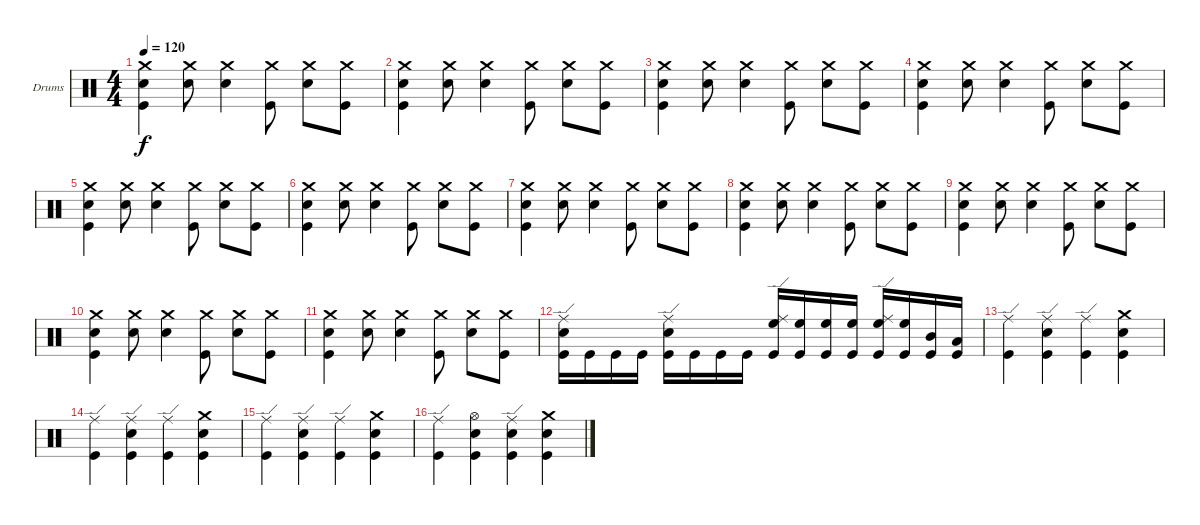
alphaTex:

\bracketExtendMode groupsimilarinstruments
\firstSystemTrackNameOrientation horizontal
\otherSystemsTrackNameOrientation horizontal
\track ("Drumkit" "Drums") {instrument percussion}
\staff {score}
\articulation defaults
\ts (4 4)
\tempo 120
\clef neutral
\ks c
("Crash medium (hit)" "Snare (hit) 2" "Kick (hit)").4{dy f} ("Crash medium (hit)" "Snare (hit) 2").8 ("Crash medium (hit)" "Snare (hit) 2").4 ("Crash medium (hit)" "Kick (hit)").8 ("Crash medium (hit)" "Snare (hit) 2").8 ("Crash medium (hit)" "Kick (hit)").8 |
("Crash medium (hit)" "Snare (hit) 2" "Kick (hit)").4 ("Crash medium (hit)" "Snare (hit) 2").8 ("Crash medium (hit)" "Snare (hit) 2").4 ("Crash medium (hit)" "Kick (hit)").8 ("Crash medium (hit)" "Snare (hit) 2").8 ("Crash medium (hit)" "Kick (hit)").8 |
("Crash medium (hit)" "Snare (hit) 2" "Kick (hit)").4 ("Crash medium (hit)" "Snare (hit) 2").8 ("Crash medium (hit)" "Snare (hit) 2").4 ("Crash medium (hit)" "Kick (hit)").8 ("Crash medium (hit)" "Snare (hit) 2").8 ("Crash medium (hit)" "Kick (hit)").8 |
("Crash medium (hit)" "Snare (hit) 2" "Kick (hit)").4 ("Crash medium (hit)" "Snare (hit) 2").8 ("Crash medium (hit)" "Snare (hit) 2").4 ("Crash medium (hit)" "Kick (hit)").8 ("Crash medium (hit)" "Snare (hit) 2").8 ("Crash medium (hit)" "Kick (hit)").8 |
("Crash medium (hit)" "Snare (hit) 2" "Kick (hit)").4 ("Crash medium (hit)" "Snare (hit) 2").8 ("Crash medium (hit)" "Snare (hit) 2").4 ("Crash medium (hit)" "Kick (hit)").8 ("Crash medium (hit)" "Snare (hit) 2").8 ("Crash medium (hit)" "Kick (hit)").8 |
("Crash medium (hit)" "Snare (hit) 2" "Kick (hit)").4 ("Crash medium (hit)" "Snare (hit) 2").8 ("Crash medium (hit)" "Snare (hit) 2").4 ("Crash medium (hit)" "Kick (hit)").8 ("Crash medium (hit)" "Snare (hit) 2").8 ("Crash medium (hit)" "Kick (hit)").8 |
("Crash medium (hit)" "Snare (hit) 2" "Kick (hit)").4 ("Crash medium (hit)" "Snare (hit) 2").8 ("Crash medium (hit)" "Snare (hit) 2").4 ("Crash medium (hit)" "Kick (hit)").8 ("Crash medium (hit)" "Snare (hit) 2").8 ("Crash medium (hit)" "Kick (hit)").8 |
("Crash medium (hit)" "Snare (hit) 2" "Kick (hit)").4 ("Crash medium (hit)" "Snare (hit) 2").8 ("Crash medium (hit)" "Snare (hit) 2").4 ("Crash medium (hit)" "Kick (hit)").8 ("Crash medium (hit)" "Snare (hit) 2").8 ("Crash medium (hit)" "Kick (hit)").8 |
("Crash medium (hit)" "Snare (hit) 2" "Kick (hit)").4 ("Crash medium (hit)" "Snare (hit) 2").8 ("Crash medium (hit)" "Snare (hit) 2").4 ("Crash medium (hit)" "Kick (hit)").8 ("Crash medium (hit)" "Snare (hit) 2").8 ("Crash medium (hit)" "Kick (hit)").8 |
("Crash medium (hit)" "Snare (hit) 2" "Kick (hit)").4 ("Crash medium (hit)" "Snare (hit) 2").8 ("Crash medium (hit)" "Snare (hit) 2").4 ("Crash medium (hit)" "Kick (hit)").8 ("Crash medium (hit)" "Snare (hit) 2").8 ("Crash medium (hit)" "Kick (hit)").8 |
("Crash medium (hit)" "Snare (hit) 2" "Kick (hit)").4 ("Crash medium (hit)" "Snare (hit) 2").8 ("Crash medium (hit)" "Snare (hit) 2").4 ("Crash medium (hit)" "Kick (hit)").8 ("Crash medium (hit)" "Snare (hit) 2").8 ("Crash medium (hit)" "Kick (hit)").8 |
("Ride (edge)" "Snare (hit) 2" "Kick (hit)").16 "Kick (hit)".16 "Kick (hit)".16 "Kick (hit)".16 ("Ride (edge)" "Snare (hit) 2" "Kick (hit)").16 "Kick (hit)".16 "Kick (hit)".16 "Kick (hit)".16 ("Ride (edge)" "High Floor Tom (hit)" "Kick (hit)").16 ("High Floor Tom (hit)" "Kick (hit)").16 ("High Floor Tom (hit)" "Kick (hit)").16 ("High Floor Tom (hit)" "Kick (hit)").16 ("Ride (edge)" "High Floor Tom (hit)" "Kick (hit)").16 ("High Floor Tom (hit)" "Kick (hit)").16 ("Mid Tom (hit)" "Kick (hit)").16 ("Low Tom (hit)" "Kick (hit)").16 |
("Ride (edge)" "Kick (hit)").4 ("Ride (edge)" "Snare (hit) 2" "Kick (hit)").4 ("Ride (edge)" "Kick (hit)").4 ("Crash medium (hit)" "Snare (hit) 2" "Kick (hit)").4 |
("Ride (edge)" "Kick (hit)").4 ("Ride (edge)" "Snare (hit) 2" "Kick (hit)").4 ("Ride (edge)" "Kick (hit)").4 ("Crash medium (hit)" "Snare (hit) 2" "Kick (hit)").4 |
("Ride (edge)" "Kick (hit)").4 ("Ride (edge)" "Snare (hit) 2" "Kick (hit)").4 ("Ride (edge)" "Kick (hit)").4 ("Crash medium (hit)" "Snare (hit) 2" "Kick (hit)").4 |
("Ride (edge)" "Kick (hit)").4 ("Hi-Hat (open)" "Snare (hit) 2" "Kick (hit)").4 ("Ride (edge)" "Snare (hit) 2" "Kick (hit)").4 ("Crash medium (hit)" "Snare (hit) 2" "Kick (hit)").4
